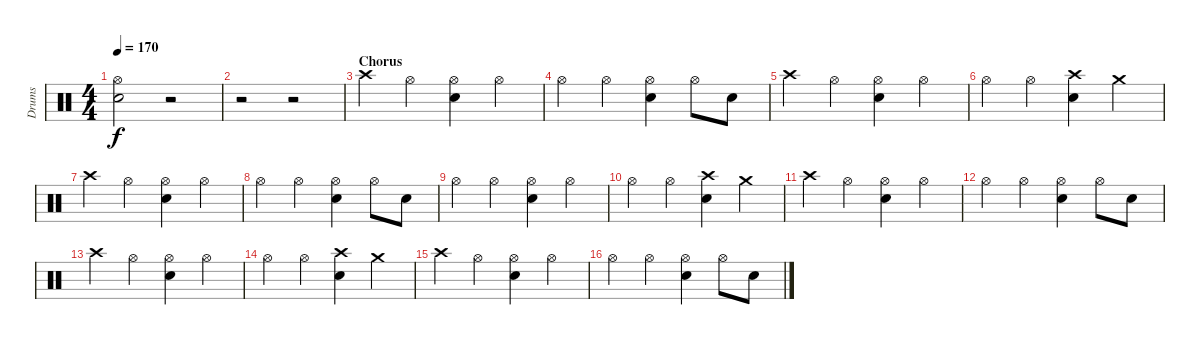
\track ("Drums" "Drums") {instrument percussion}
\staff {score}
\articulation defaults
\ts (4 4)
\tempo 170
\clef neutral
\ks c
("Hi-Hat (open)" "Electric Snare (hit)").2{dy f} r.2 |
r.2 r.2 |
\section ("" "Chorus")
"Crash high (hit)".4 "Hi-Hat (open)".4 ("Hi-Hat (open)" "Electric Snare (hit)").4 "Hi-Hat (open)".4 |
"Hi-Hat (open)".4 "Hi-Hat (open)".4 ("Hi-Hat (open)" "Electric Snare (hit)").4 "Hi-Hat (open)".8 "Electric Snare (hit)".8 |
"Crash high (hit)".4 "Hi-Hat (open)".4 ("Hi-Hat (open)" "Electric Snare (hit)").4 "Hi-Hat (open)".4 |
"Hi-Hat (open)".4 "Hi-Hat (open)".4 ("Crash high (hit)" "Electric Snare (hit)").4 "Crash medium (hit)".4 |
"Crash high (hit)".4 "Hi-Hat (open)".4 ("Hi-Hat (open)" "Electric Snare (hit)").4 "Hi-Hat (open)".4 |
"Hi-Hat (open)".4 "Hi-Hat (open)".4 ("Hi-Hat (open)" "Electric Snare (hit)").4 "Hi-Hat (open)".8 "Electric Snare (hit)".8 |
"Hi-Hat (open)".4 "Hi-Hat (open)".4 ("Hi-Hat (open)" "Electric Snare (hit)").4 "Hi-Hat (open)".4 |
"Hi-Hat (open)".4 "Hi-Hat (open)".4 ("Crash high (hit)" "Electric Snare (hit)").4 "Crash medium (hit)".4 |
"Crash high (hit)".4 "Hi-Hat (open)".4 ("Hi-Hat (open)" "Electric Snare (hit)").4 "Hi-Hat (open)".4 |
"Hi-Hat (open)".4 "Hi-Hat (open)".4 ("Hi-Hat (open)" "Electric Snare (hit)").4 "Hi-Hat (open)".8 "Electric Snare (hit)".8 |
"Crash high (hit)".4 "Hi-Hat (open)".4 ("Hi-Hat (open)" "Electric Snare (hit)").4 "Hi-Hat (open)".4 |
"Hi-Hat (open)".4 "Hi-Hat (open)".4 ("Crash high (hit)" "Electric Snare (hit)").4 "Crash medium (hit)".4 |
"Crash high (hit)".4 "Hi-Hat (open)".4 ("Hi-Hat (open)" "Electric Snare (hit)").4 "Hi-Hat (open)".4 |
"Hi-Hat (open)".4 "Hi-Hat (open)".4 ("Hi-Hat (open)" "Electric Snare (hit)").4 "Hi-Hat (open)".8 "Electric Snare (hit)".8
